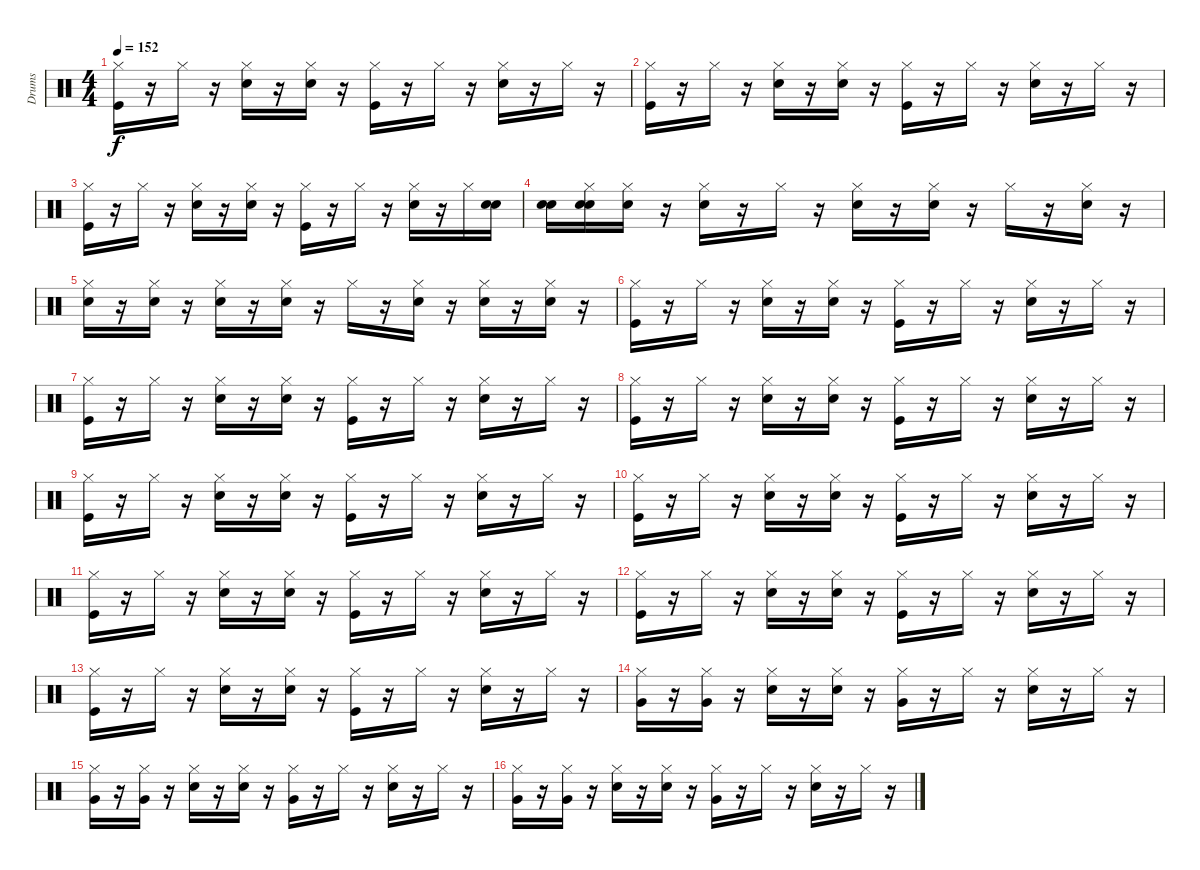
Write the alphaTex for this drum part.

\track ("Drums               " "Drums     ") {instrument percussion}
\staff {score}
\articulation defaults
\ts (4 4)
\tempo 152
\clef neutral
\ks c
("Kick (hit)" "Hi-Hat (closed)").16{dy f} r.16 "Hi-Hat (closed)".16 r.16 ("Electric Snare (hit)" "Hi-Hat (closed)").16 r.16 ("Electric Snare (hit)" "Hi-Hat (closed)").16 r.16 ("Kick (hit)" "Hi-Hat (closed)").16 r.16 "Hi-Hat (closed)".16 r.16 ("Electric Snare (hit)" "Hi-Hat (closed)").16 r.16 "Hi-Hat (closed)".16 r.16 |
("Kick (hit)" "Hi-Hat (closed)").16 r.16 "Hi-Hat (closed)".16 r.16 ("Electric Snare (hit)" "Hi-Hat (closed)").16 r.16 ("Electric Snare (hit)" "Hi-Hat (closed)").16 r.16 ("Hi-Hat (closed)" "Kick (hit)").16 r.16 "Hi-Hat (closed)".16 r.16 ("Electric Snare (hit)" "Hi-Hat (closed)").16 r.16 "Hi-Hat (closed)".16 r.16 |
("Kick (hit)" "Hi-Hat (closed)").16 r.16 "Hi-Hat (closed)".16 r.16 ("Electric Snare (hit)" "Hi-Hat (closed)").16 r.16 ("Electric Snare (hit)" "Hi-Hat (closed)").16 r.16 ("Kick (hit)" "Hi-Hat (closed)").16 r.16 "Hi-Hat (closed)".16 r.16 ("Electric Snare (hit)" "Hi-Hat (closed)").16 r.16 "Hi-Hat (closed)".16 ("Snare (hit)" "Electric Snare (hit)").16 |
("Snare (hit)" "Electric Snare (hit)").16 ("Snare (hit)" "Electric Snare (hit)" "Hi-Hat (closed)").16 ("Snare (hit)" "Hi-Hat (closed)").16 r.16 ("Electric Snare (hit)" "Hi-Hat (closed)").16 r.16 "Hi-Hat (closed)".16 r.16 ("Electric Snare (hit)" "Hi-Hat (closed)").16 r.16 ("Electric Snare (hit)" "Hi-Hat (closed)").16 r.16 "Hi-Hat (closed)".16 r.16 ("Electric Snare (hit)" "Hi-Hat (closed)").16 r.16 |
("Electric Snare (hit)" "Hi-Hat (closed)").16 r.16 ("Electric Snare (hit)" "Hi-Hat (closed)").16 r.16 ("Hi-Hat (closed)" "Electric Snare (hit)").16 r.16 ("Electric Snare (hit)" "Hi-Hat (closed)").16 r.16 "Hi-Hat (closed)".16 r.16 ("Electric Snare (hit)" "Hi-Hat (closed)").16 r.16 ("Electric Snare (hit)" "Hi-Hat (closed)").16 r.16 ("Electric Snare (hit)" "Hi-Hat (closed)").16 r.16 |
("Kick (hit)" "Hi-Hat (closed)").16 r.16 "Hi-Hat (closed)".16 r.16 ("Electric Snare (hit)" "Hi-Hat (closed)").16 r.16 ("Electric Snare (hit)" "Hi-Hat (closed)").16 r.16 ("Kick (hit)" "Hi-Hat (closed)").16 r.16 "Hi-Hat (closed)".16 r.16 ("Electric Snare (hit)" "Hi-Hat (closed)").16 r.16 "Hi-Hat (closed)".16 r.16 |
("Kick (hit)" "Hi-Hat (closed)").16 r.16 "Hi-Hat (closed)".16 r.16 ("Electric Snare (hit)" "Hi-Hat (closed)").16 r.16 ("Electric Snare (hit)" "Hi-Hat (closed)").16 r.16 ("Kick (hit)" "Hi-Hat (closed)").16 r.16 "Hi-Hat (closed)".16 r.16 ("Electric Snare (hit)" "Hi-Hat (closed)").16 r.16 "Hi-Hat (closed)".16 r.16 |
("Hi-Hat (closed)" "Kick (hit)").16 r.16 "Hi-Hat (closed)".16 r.16 ("Electric Snare (hit)" "Hi-Hat (closed)").16 r.16 ("Electric Snare (hit)" "Hi-Hat (closed)").16 r.16 ("Kick (hit)" "Hi-Hat (closed)").16 r.16 "Hi-Hat (closed)".16 r.16 ("Electric Snare (hit)" "Hi-Hat (closed)").16 r.16 "Hi-Hat (closed)".16 r.16 |
("Kick (hit)" "Hi-Hat (closed)").16 r.16 "Hi-Hat (closed)".16 r.16 ("Electric Snare (hit)" "Hi-Hat (closed)").16 r.16 ("Hi-Hat (closed)" "Electric Snare (hit)").16 r.16 ("Kick (hit)" "Hi-Hat (closed)").16 r.16 "Hi-Hat (closed)".16 r.16 ("Electric Snare (hit)" "Hi-Hat (closed)").16 r.16 "Hi-Hat (closed)".16 r.16 |
("Kick (hit)" "Hi-Hat (closed)").16 r.16 "Hi-Hat (closed)".16 r.16 ("Electric Snare (hit)" "Hi-Hat (closed)").16 r.16 ("Electric Snare (hit)" "Hi-Hat (closed)").16 r.16 ("Kick (hit)" "Hi-Hat (closed)").16 r.16 "Hi-Hat (closed)".16 r.16 ("Hi-Hat (closed)" "Electric Snare (hit)").16 r.16 "Hi-Hat (closed)".16 r.16 |
("Kick (hit)" "Hi-Hat (closed)").16 r.16 "Hi-Hat (closed)".16 r.16 ("Electric Snare (hit)" "Hi-Hat (closed)").16 r.16 ("Electric Snare (hit)" "Hi-Hat (closed)").16 r.16 ("Kick (hit)" "Hi-Hat (closed)").16 r.16 "Hi-Hat (closed)".16 r.16 ("Electric Snare (hit)" "Hi-Hat (closed)").16 r.16 "Hi-Hat (closed)".16 r.16 |
("Kick (hit)" "Hi-Hat (closed)").16 r.16 "Hi-Hat (closed)".16 r.16 ("Electric Snare (hit)" "Hi-Hat (closed)").16 r.16 ("Electric Snare (hit)" "Hi-Hat (closed)").16 r.16 ("Kick (hit)" "Hi-Hat (closed)").16 r.16 "Hi-Hat (closed)".16 r.16 ("Electric Snare (hit)" "Hi-Hat (closed)").16 r.16 "Hi-Hat (closed)".16 r.16 |
("Kick (hit)" "Hi-Hat (closed)").16 r.16 "Hi-Hat (closed)".16 r.16 ("Electric Snare (hit)" "Hi-Hat (closed)").16 r.16 ("Electric Snare (hit)" "Hi-Hat (closed)").16 r.16 ("Hi-Hat (closed)" "Kick (hit)").16 r.16 "Hi-Hat (closed)".16 r.16 ("Electric Snare (hit)" "Hi-Hat (closed)").16 r.16 "Hi-Hat (closed)".16 r.16 |
("Very Low Tom (hit)" "Hi-Hat (closed)").16 r.16 ("Very Low Tom (hit)" "Hi-Hat (closed)").16 r.16 ("Electric Snare (hit)" "Hi-Hat (closed)").16 r.16 ("Electric Snare (hit)" "Hi-Hat (closed)").16 r.16 ("Hi-Hat (closed)" "Very Low Tom (hit)").16 r.16 "Hi-Hat (closed)".16 r.16 ("Electric Snare (hit)" "Hi-Hat (closed)").16 r.16 "Hi-Hat (closed)".16 r.16 |
("Very Low Tom (hit)" "Hi-Hat (closed)").16 r.16 ("Very Low Tom (hit)" "Hi-Hat (closed)").16 r.16 ("Electric Snare (hit)" "Hi-Hat (closed)").16 r.16 ("Electric Snare (hit)" "Hi-Hat (closed)").16 r.16 ("Very Low Tom (hit)" "Hi-Hat (closed)").16 r.16 "Hi-Hat (closed)".16 r.16 ("Electric Snare (hit)" "Hi-Hat (closed)").16 r.16 "Hi-Hat (closed)".16 r.16 |
("Very Low Tom (hit)" "Hi-Hat (closed)").16 r.16 ("Hi-Hat (closed)" "Very Low Tom (hit)").16 r.16 ("Hi-Hat (closed)" "Electric Snare (hit)").16 r.16 ("Electric Snare (hit)" "Hi-Hat (closed)").16 r.16 ("Very Low Tom (hit)" "Hi-Hat (closed)").16 r.16 "Hi-Hat (closed)".16 r.16 ("Electric Snare (hit)" "Hi-Hat (closed)").16 r.16 "Hi-Hat (closed)".16 r.16
